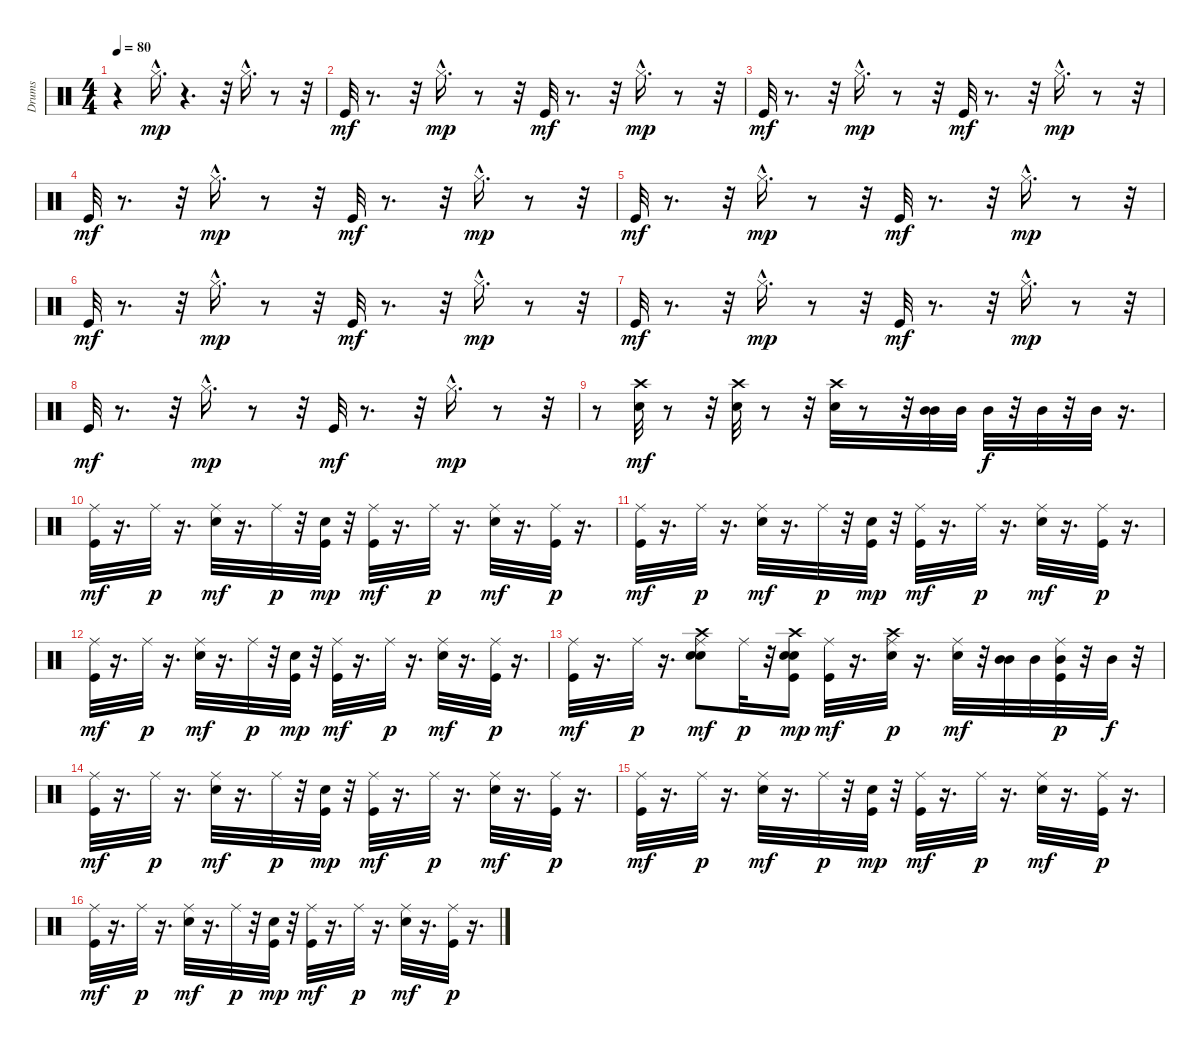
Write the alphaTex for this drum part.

\track ("Drums" "Drums") {instrument percussion}
\staff {score}
\articulation defaults
\ts (4 4)
\tempo 80
\clef neutral
\ks c
r.4{dy mp} "Hi-Hat (closed)"{hac}.16{d} r.4{d} r.32 "Hi-Hat (closed)"{hac}.16{d} r.8 r.32 |
"Kick (hit)".32{dy mf} r.8{d} r.32 "Hi-Hat (closed)"{hac}.16{d dy mp} r.8 r.32 "Kick (hit)".32{dy mf} r.8{d} r.32 "Hi-Hat (closed)"{hac}.16{d dy mp} r.8 r.32 |
"Kick (hit)".32{dy mf} r.8{d} r.32 "Hi-Hat (closed)"{hac}.16{d dy mp} r.8 r.32 "Kick (hit)".32{dy mf} r.8{d} r.32 "Hi-Hat (closed)"{hac}.16{d dy mp} r.8 r.32 |
"Kick (hit)".32{dy mf} r.8{d} r.32 "Hi-Hat (closed)"{hac}.16{d dy mp} r.8 r.32 "Kick (hit)".32{dy mf} r.8{d} r.32 "Hi-Hat (closed)"{hac}.16{d dy mp} r.8 r.32 |
"Kick (hit)".32{dy mf} r.8{d} r.32 "Hi-Hat (closed)"{hac}.16{d dy mp} r.8 r.32 "Kick (hit)".32{dy mf} r.8{d} r.32 "Hi-Hat (closed)"{hac}.16{d dy mp} r.8 r.32 |
"Kick (hit)".32{dy mf} r.8{d} r.32 "Hi-Hat (closed)"{hac}.16{d dy mp} r.8 r.32 "Kick (hit)".32{dy mf} r.8{d} r.32 "Hi-Hat (closed)"{hac}.16{d dy mp} r.8 r.32 |
"Kick (hit)".32{dy mf} r.8{d} r.32 "Hi-Hat (closed)"{hac}.16{d dy mp} r.8 r.32 "Kick (hit)".32{dy mf} r.8{d} r.32 "Hi-Hat (closed)"{hac}.16{d dy mp} r.8 r.32 |
"Kick (hit)".32{dy mf} r.8{d} r.32 "Hi-Hat (closed)"{hac}.16{d dy mp} r.8 r.32 "Kick (hit)".32{dy mf} r.8{d} r.32 "Hi-Hat (closed)"{hac}.16{d dy mp} r.8 r.32 |
r.8 ("Snare (hit) 2" "Crash high (hit)").32{dy mf} r.8 r.32 ("Crash high (hit)" "Snare (hit) 2").32 r.8 r.32 ("Crash high (hit)" "Snare (hit) 2").32 r.8 r.32 ("Mid Tom (hit)" "Mid Tom (hit)").32 "Mid Tom (hit)".32 "Mid Tom (hit)".32{dy f} r.32 "Mid Tom (hit)".32 r.32 "Mid Tom (hit)".32 r.16{d} |
("Kick (hit)" "Ride (middle)").32{dy mf} r.16{d} "Ride (middle)".32{dy p} r.16{d} ("Snare (hit) 2" "Ride (middle)").32{dy mf} r.16{d} "Ride (middle)".32{dy p} r.32 ("Kick (hit)" "Snare (hit) 2").32{dy mp} r.32 ("Kick (hit)" "Ride (middle)").32{dy mf} r.16{d} "Ride (middle)".32{dy p} r.16{d} ("Snare (hit) 2" "Ride (middle)").32{dy mf} r.16{d} ("Kick (hit)" "Ride (middle)").32{dy p} r.16{d} |
("Kick (hit)" "Ride (middle)").32{dy mf} r.16{d} "Ride (middle)".32{dy p} r.16{d} ("Snare (hit) 2" "Ride (middle)").32{dy mf} r.16{d} "Ride (middle)".32{dy p} r.32 ("Kick (hit)" "Snare (hit) 2").32{dy mp} r.32 ("Kick (hit)" "Ride (middle)").32{dy mf} r.16{d} "Ride (middle)".32{dy p} r.16{d} ("Snare (hit) 2" "Ride (middle)").32{dy mf} r.16{d} ("Kick (hit)" "Ride (middle)").32{dy p} r.16{d} |
("Kick (hit)" "Ride (middle)").32{dy mf} r.16{d} "Ride (middle)".32{dy p} r.16{d} ("Snare (hit) 2" "Ride (middle)").32{dy mf} r.16{d} "Ride (middle)".32{dy p} r.32 ("Kick (hit)" "Snare (hit) 2").32{dy mp} r.32 ("Kick (hit)" "Ride (middle)").32{dy mf} r.16{d} "Ride (middle)".32{dy p} r.16{d} ("Snare (hit) 2" "Ride (middle)").32{dy mf} r.16{d} ("Kick (hit)" "Ride (middle)").32{dy p} r.16{d} |
("Kick (hit)" "Ride (middle)").32{dy mf} r.16{d} "Ride (middle)".32{dy p} r.16{d} ("Snare (hit) 2" "Crash high (hit)" "Snare (hit) 2" "Ride (middle)").8{dy mf} "Ride (middle)".32{dy p} r.32 ("Crash high (hit)" "Snare (hit) 2" "Kick (hit)" "Snare (hit) 2").16{dy mp} ("Kick (hit)" "Ride (middle)").32{dy mf} r.16{d} ("Crash high (hit)" "Snare (hit) 2" "Ride (middle)").32{dy p} r.16{d} ("Snare (hit) 2" "Ride (middle)").32{dy mf} r.32 ("Mid Tom (hit)" "Mid Tom (hit)").32 "Mid Tom (hit)".32 ("Mid Tom (hit)" "Kick (hit)" "Ride (middle)").32{dy p} r.32 "Mid Tom (hit)".32{dy f} r.32 |
("Kick (hit)" "Ride (middle)").32{dy mf} r.16{d} "Ride (middle)".32{dy p} r.16{d} ("Snare (hit) 2" "Ride (middle)").32{dy mf} r.16{d} "Ride (middle)".32{dy p} r.32 ("Kick (hit)" "Snare (hit) 2").32{dy mp} r.32 ("Kick (hit)" "Ride (middle)").32{dy mf} r.16{d} "Ride (middle)".32{dy p} r.16{d} ("Snare (hit) 2" "Ride (middle)").32{dy mf} r.16{d} ("Kick (hit)" "Ride (middle)").32{dy p} r.16{d} |
("Kick (hit)" "Ride (middle)").32{dy mf} r.16{d} "Ride (middle)".32{dy p} r.16{d} ("Snare (hit) 2" "Ride (middle)").32{dy mf} r.16{d} "Ride (middle)".32{dy p} r.32 ("Kick (hit)" "Snare (hit) 2").32{dy mp} r.32 ("Kick (hit)" "Ride (middle)").32{dy mf} r.16{d} "Ride (middle)".32{dy p} r.16{d} ("Snare (hit) 2" "Ride (middle)").32{dy mf} r.16{d} ("Kick (hit)" "Ride (middle)").32{dy p} r.16{d} |
("Kick (hit)" "Ride (middle)").32{dy mf} r.16{d} "Ride (middle)".32{dy p} r.16{d} ("Snare (hit) 2" "Ride (middle)").32{dy mf} r.16{d} "Ride (middle)".32{dy p} r.32 ("Kick (hit)" "Snare (hit) 2").32{dy mp} r.32 ("Kick (hit)" "Ride (middle)").32{dy mf} r.16{d} "Ride (middle)".32{dy p} r.16{d} ("Snare (hit) 2" "Ride (middle)").32{dy mf} r.16{d} ("Kick (hit)" "Ride (middle)").32{dy p} r.16{d}
